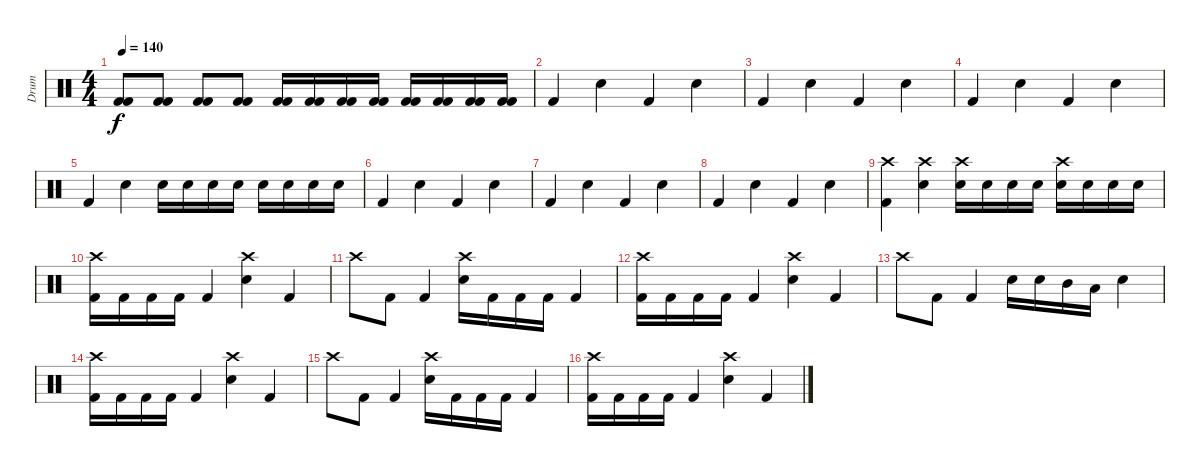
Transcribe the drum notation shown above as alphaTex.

\track ("Drum" "Drum") {instrument percussion}
\staff {score}
\articulation defaults
\ts (4 4)
\tempo 140
\clef neutral
\ks c
("Kick (hit) 2" "Kick (hit) 2").8{dy f} ("Kick (hit) 2" "Kick (hit) 2").8 ("Kick (hit) 2" "Kick (hit) 2").8 ("Kick (hit) 2" "Kick (hit) 2").8 ("Kick (hit) 2" "Kick (hit) 2").16 ("Kick (hit) 2" "Kick (hit) 2").16 ("Kick (hit) 2" "Kick (hit) 2").16 ("Kick (hit) 2" "Kick (hit) 2").16 ("Kick (hit) 2" "Kick (hit) 2").16 ("Kick (hit) 2" "Kick (hit) 2").16 ("Kick (hit) 2" "Kick (hit) 2").16 ("Kick (hit) 2" "Kick (hit) 2").16 |
"Kick (hit) 2".4 "Hand Clap (hit)".4 "Kick (hit) 2".4 "Hand Clap (hit)".4 |
"Kick (hit) 2".4 "Hand Clap (hit)".4 "Kick (hit) 2".4 "Hand Clap (hit)".4 |
"Kick (hit) 2".4 "Hand Clap (hit)".4 "Kick (hit) 2".4 "Hand Clap (hit)".4 |
"Kick (hit) 2".4 "Hand Clap (hit)".4 "Hand Clap (hit)".16 "Hand Clap (hit)".16 "Hand Clap (hit)".16 "Hand Clap (hit)".16 "Hand Clap (hit)".16 "Hand Clap (hit)".16 "Hand Clap (hit)".16 "Hand Clap (hit)".16 |
"Kick (hit) 2".4 "Hand Clap (hit)".4 "Kick (hit) 2".4 "Hand Clap (hit)".4 |
"Kick (hit) 2".4 "Hand Clap (hit)".4 "Kick (hit) 2".4 "Hand Clap (hit)".4 |
"Kick (hit) 2".4 "Hand Clap (hit)".4 "Kick (hit) 2".4 "Hand Clap (hit)".4 |
("Crash high (hit)" "Kick (hit) 2").4 ("Crash high (hit)" "Hand Clap (hit)").4 ("Crash high (hit)" "Hand Clap (hit)").16 "Hand Clap (hit)".16 "Hand Clap (hit)".16 "Hand Clap (hit)".16 ("Crash high (hit)" "Hand Clap (hit)").16 "Hand Clap (hit)".16 "Hand Clap (hit)".16 "Hand Clap (hit)".16 |
("Crash high (hit)" "Kick (hit) 2").16 "Kick (hit) 2".16 "Kick (hit) 2".16 "Kick (hit) 2".16 "Kick (hit) 2".4 ("Crash high (hit)" "Electric Snare (hit)").4 "Kick (hit) 2".4 |
"Crash high (hit)".8 "Kick (hit) 2".8 "Kick (hit) 2".4 ("Crash high (hit)" "Electric Snare (hit)").16 "Kick (hit) 2".16 "Kick (hit) 2".16 "Kick (hit) 2".16 "Kick (hit) 2".4 |
("Crash high (hit)" "Kick (hit) 2").16 "Kick (hit) 2".16 "Kick (hit) 2".16 "Kick (hit) 2".16 "Kick (hit) 2".4 ("Crash high (hit)" "Electric Snare (hit)").4 "Kick (hit) 2".4 |
"Crash high (hit)".8 "Kick (hit) 2".8 "Kick (hit) 2".4 "Electric Snare (hit)".16 "Electric Snare (hit)".16 "Mid Tom (hit)".16 "Low Floor Tom (hit)".16 "Electric Snare (hit)".4 |
("Crash high (hit)" "Kick (hit) 2").16 "Kick (hit) 2".16 "Kick (hit) 2".16 "Kick (hit) 2".16 "Kick (hit) 2".4 ("Crash high (hit)" "Electric Snare (hit)").4 "Kick (hit) 2".4 |
"Crash high (hit)".8 "Kick (hit) 2".8 "Kick (hit) 2".4 ("Crash high (hit)" "Electric Snare (hit)").16 "Kick (hit) 2".16 "Kick (hit) 2".16 "Kick (hit) 2".16 "Kick (hit) 2".4 |
("Crash high (hit)" "Kick (hit) 2").16 "Kick (hit) 2".16 "Kick (hit) 2".16 "Kick (hit) 2".16 "Kick (hit) 2".4 ("Crash high (hit)" "Electric Snare (hit)").4 "Kick (hit) 2".4
